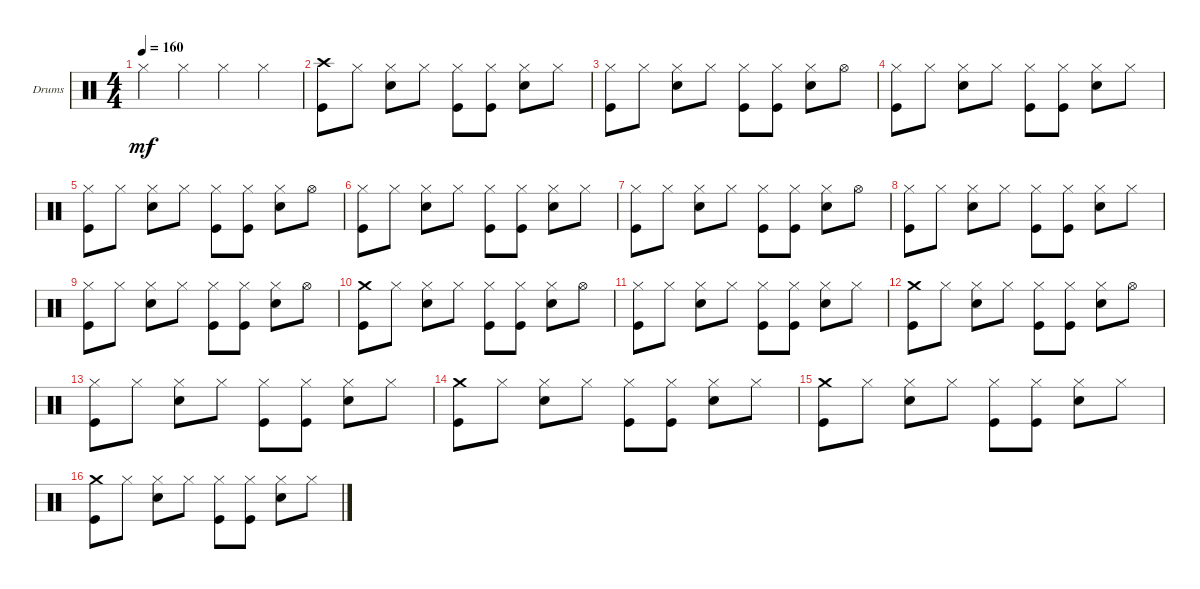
\defaultSystemsLayout 4
\bracketExtendMode groupsimilarinstruments
\firstSystemTrackNameOrientation horizontal
\otherSystemsTrackNameOrientation horizontal
\track ("Drumkit" "Drums") {instrument percussion}
\staff {score}
\articulation defaults
\ts (4 4)
\tempo 160
\clef neutral
\ks c "Hi-Hat (closed)".4{dy mf} "Hi-Hat (closed)".4 "Hi-Hat (closed)".4 "Hi-Hat (closed)".4
|
("Kick (hit)" "Crash high (hit)").8 "Hi-Hat (closed)".8 ("Snare (hit) 2" "Hi-Hat (closed)").8 "Hi-Hat (closed)".8 ("Hi-Hat (closed)" "Kick (hit)").8 ("Kick (hit)" "Hi-Hat (closed)").8 ("Snare (hit) 2" "Hi-Hat (closed)").8 "Hi-Hat (closed)".8 |
("Kick (hit)" "Hi-Hat (closed)").8 "Hi-Hat (closed)".8 ("Snare (hit) 2" "Hi-Hat (closed)").8 "Hi-Hat (closed)".8 ("Hi-Hat (closed)" "Kick (hit)").8 ("Kick (hit)" "Hi-Hat (closed)").8 ("Snare (hit) 2" "Hi-Hat (closed)").8 "Hi-Hat (open)".8 |
("Kick (hit)" "Hi-Hat (closed)").8 "Hi-Hat (closed)".8 ("Snare (hit) 2" "Hi-Hat (closed)").8 "Hi-Hat (closed)".8 ("Hi-Hat (closed)" "Kick (hit)").8 ("Kick (hit)" "Hi-Hat (closed)").8 ("Snare (hit) 2" "Hi-Hat (closed)").8 "Hi-Hat (closed)".8 |
("Kick (hit)" "Hi-Hat (closed)").8 "Hi-Hat (closed)".8 ("Snare (hit) 2" "Hi-Hat (closed)").8 "Hi-Hat (closed)".8 ("Hi-Hat (closed)" "Kick (hit)").8 ("Kick (hit)" "Hi-Hat (closed)").8 ("Snare (hit) 2" "Hi-Hat (closed)").8 "Hi-Hat (open)".8 |
("Kick (hit)" "Hi-Hat (closed)").8 "Hi-Hat (closed)".8 ("Snare (hit) 2" "Hi-Hat (closed)").8 "Hi-Hat (closed)".8 ("Hi-Hat (closed)" "Kick (hit)").8 ("Kick (hit)" "Hi-Hat (closed)").8 ("Snare (hit) 2" "Hi-Hat (closed)").8 "Hi-Hat (closed)".8 |
("Kick (hit)" "Hi-Hat (closed)").8 "Hi-Hat (closed)".8 ("Snare (hit) 2" "Hi-Hat (closed)").8 "Hi-Hat (closed)".8 ("Hi-Hat (closed)" "Kick (hit)").8 ("Kick (hit)" "Hi-Hat (closed)").8 ("Snare (hit) 2" "Hi-Hat (closed)").8 "Hi-Hat (open)".8 |
("Kick (hit)" "Hi-Hat (closed)").8 "Hi-Hat (closed)".8 ("Snare (hit) 2" "Hi-Hat (closed)").8 "Hi-Hat (closed)".8 ("Hi-Hat (closed)" "Kick (hit)").8 ("Kick (hit)" "Hi-Hat (closed)").8 ("Snare (hit) 2" "Hi-Hat (closed)").8 "Hi-Hat (closed)".8 |
("Kick (hit)" "Hi-Hat (closed)").8 "Hi-Hat (closed)".8 ("Snare (hit) 2" "Hi-Hat (closed)").8 "Hi-Hat (closed)".8 ("Hi-Hat (closed)" "Kick (hit)").8 ("Kick (hit)" "Hi-Hat (closed)").8 ("Snare (hit) 2" "Hi-Hat (closed)").8 "Hi-Hat (open)".8 |
("Kick (hit)" "Crash medium (hit)").8 "Hi-Hat (closed)".8 ("Snare (hit) 2" "Hi-Hat (closed)").8 "Hi-Hat (closed)".8 ("Hi-Hat (closed)" "Kick (hit)").8 ("Kick (hit)" "Hi-Hat (closed)").8 ("Snare (hit) 2" "Hi-Hat (closed)").8 "Hi-Hat (open)".8 |
("Kick (hit)" "Hi-Hat (closed)").8 "Hi-Hat (closed)".8 ("Snare (hit) 2" "Hi-Hat (closed)").8 "Hi-Hat (closed)".8 ("Hi-Hat (closed)" "Kick (hit)").8 ("Kick (hit)" "Hi-Hat (closed)").8 ("Snare (hit) 2" "Hi-Hat (closed)").8 "Hi-Hat (closed)".8 |
("Kick (hit)" "Crash medium (hit)").8 "Hi-Hat (closed)".8 ("Snare (hit) 2" "Hi-Hat (closed)").8 "Hi-Hat (closed)".8 ("Hi-Hat (closed)" "Kick (hit)").8 ("Kick (hit)" "Hi-Hat (closed)").8 ("Snare (hit) 2" "Hi-Hat (closed)").8 "Hi-Hat (open)".8 |
("Kick (hit)" "Hi-Hat (closed)").8 "Hi-Hat (closed)".8 ("Snare (hit) 2" "Hi-Hat (closed)").8 "Hi-Hat (closed)".8 ("Hi-Hat (closed)" "Kick (hit)").8 ("Kick (hit)" "Hi-Hat (closed)").8 ("Snare (hit) 2" "Hi-Hat (closed)").8 "Hi-Hat (closed)".8 |
("Kick (hit)" "Crash medium (hit)").8 "Hi-Hat (closed)".8 ("Snare (hit) 2" "Hi-Hat (closed)").8 "Hi-Hat (closed)".8 ("Hi-Hat (closed)" "Kick (hit)").8 ("Kick (hit)" "Hi-Hat (closed)").8 ("Snare (hit) 2" "Hi-Hat (closed)").8 "Hi-Hat (closed)".8 |
("Kick (hit)" "Crash medium (hit)").8 "Hi-Hat (closed)".8 ("Snare (hit) 2" "Hi-Hat (closed)").8 "Hi-Hat (closed)".8 ("Hi-Hat (closed)" "Kick (hit)").8 ("Kick (hit)" "Hi-Hat (closed)").8 ("Snare (hit) 2" "Hi-Hat (closed)").8 "Hi-Hat (closed)".8 |
("Kick (hit)" "Crash medium (hit)").8 "Hi-Hat (closed)".8 ("Snare (hit) 2" "Hi-Hat (closed)").8 "Hi-Hat (closed)".8 ("Hi-Hat (closed)" "Kick (hit)").8 ("Kick (hit)" "Hi-Hat (closed)").8 ("Snare (hit) 2" "Hi-Hat (closed)").8 "Hi-Hat (closed)".8
